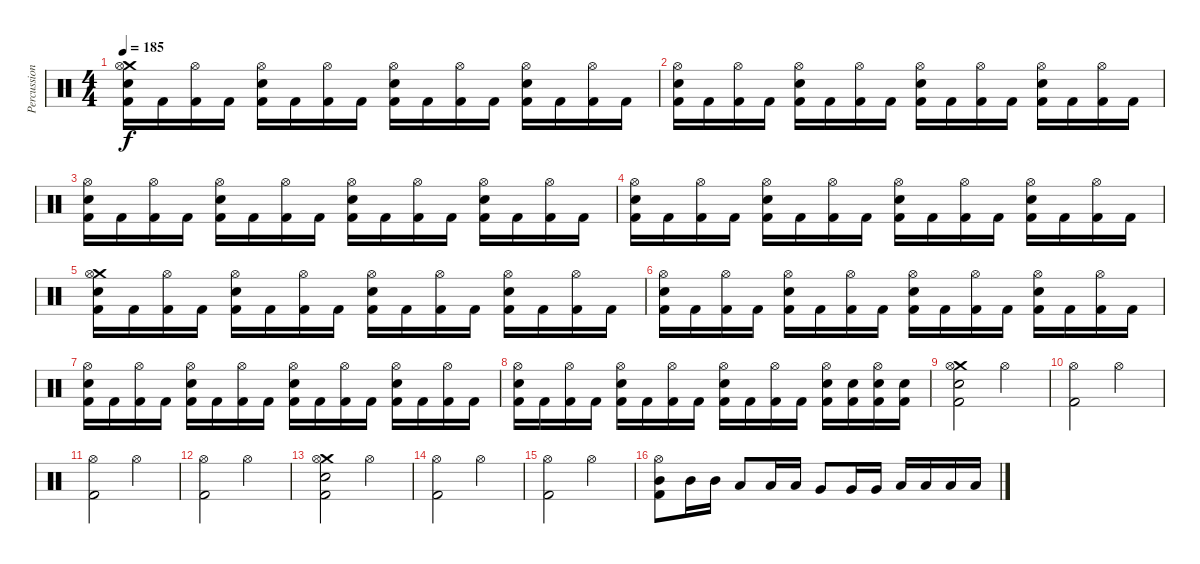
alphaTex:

\track ("Percussion" "Percussion") {instrument percussion}
\staff {score}
\articulation defaults
\ts (4 4)
\tempo 185
\clef neutral
\ks c
("Crash medium (hit)" "Hi-Hat (open)" "Electric Snare (hit)" "Kick (hit) 2").16{dy f} "Kick (hit) 2".16 ("Hi-Hat (open)" "Kick (hit) 2").16 "Kick (hit) 2".16 ("Hi-Hat (open)" "Electric Snare (hit)" "Kick (hit) 2").16 "Kick (hit) 2".16 ("Hi-Hat (open)" "Kick (hit) 2").16 "Kick (hit) 2".16 ("Hi-Hat (open)" "Electric Snare (hit)" "Kick (hit) 2").16 "Kick (hit) 2".16 ("Hi-Hat (open)" "Kick (hit) 2").16 "Kick (hit) 2".16 ("Hi-Hat (open)" "Electric Snare (hit)" "Kick (hit) 2").16 "Kick (hit) 2".16 ("Hi-Hat (open)" "Kick (hit) 2").16 "Kick (hit) 2".16 |
("Hi-Hat (open)" "Electric Snare (hit)" "Kick (hit) 2").16 "Kick (hit) 2".16 ("Hi-Hat (open)" "Kick (hit) 2").16 "Kick (hit) 2".16 ("Hi-Hat (open)" "Electric Snare (hit)" "Kick (hit) 2").16 "Kick (hit) 2".16 ("Hi-Hat (open)" "Kick (hit) 2").16 "Kick (hit) 2".16 ("Hi-Hat (open)" "Electric Snare (hit)" "Kick (hit) 2").16 "Kick (hit) 2".16 ("Hi-Hat (open)" "Kick (hit) 2").16 "Kick (hit) 2".16 ("Hi-Hat (open)" "Electric Snare (hit)" "Kick (hit) 2").16 "Kick (hit) 2".16 ("Hi-Hat (open)" "Kick (hit) 2").16 "Kick (hit) 2".16 |
("Hi-Hat (open)" "Electric Snare (hit)" "Kick (hit) 2").16 "Kick (hit) 2".16 ("Hi-Hat (open)" "Kick (hit) 2").16 "Kick (hit) 2".16 ("Hi-Hat (open)" "Electric Snare (hit)" "Kick (hit) 2").16 "Kick (hit) 2".16 ("Hi-Hat (open)" "Kick (hit) 2").16 "Kick (hit) 2".16 ("Hi-Hat (open)" "Electric Snare (hit)" "Kick (hit) 2").16 "Kick (hit) 2".16 ("Hi-Hat (open)" "Kick (hit) 2").16 "Kick (hit) 2".16 ("Hi-Hat (open)" "Electric Snare (hit)" "Kick (hit) 2").16 "Kick (hit) 2".16 ("Hi-Hat (open)" "Kick (hit) 2").16 "Kick (hit) 2".16 |
("Hi-Hat (open)" "Electric Snare (hit)" "Kick (hit) 2").16 "Kick (hit) 2".16 ("Hi-Hat (open)" "Kick (hit) 2").16 "Kick (hit) 2".16 ("Hi-Hat (open)" "Electric Snare (hit)" "Kick (hit) 2").16 "Kick (hit) 2".16 ("Hi-Hat (open)" "Kick (hit) 2").16 "Kick (hit) 2".16 ("Hi-Hat (open)" "Electric Snare (hit)" "Kick (hit) 2").16 "Kick (hit) 2".16 ("Hi-Hat (open)" "Kick (hit) 2").16 "Kick (hit) 2".16 ("Hi-Hat (open)" "Electric Snare (hit)" "Kick (hit) 2").16 "Kick (hit) 2".16 ("Hi-Hat (open)" "Kick (hit) 2").16 "Kick (hit) 2".16 |
("Crash medium (hit)" "Hi-Hat (open)" "Electric Snare (hit)" "Kick (hit) 2").16 "Kick (hit) 2".16 ("Hi-Hat (open)" "Kick (hit) 2").16 "Kick (hit) 2".16 ("Hi-Hat (open)" "Electric Snare (hit)" "Kick (hit) 2").16 "Kick (hit) 2".16 ("Hi-Hat (open)" "Kick (hit) 2").16 "Kick (hit) 2".16 ("Hi-Hat (open)" "Electric Snare (hit)" "Kick (hit) 2").16 "Kick (hit) 2".16 ("Hi-Hat (open)" "Kick (hit) 2").16 "Kick (hit) 2".16 ("Hi-Hat (open)" "Electric Snare (hit)" "Kick (hit) 2").16 "Kick (hit) 2".16 ("Hi-Hat (open)" "Kick (hit) 2").16 "Kick (hit) 2".16 |
("Hi-Hat (open)" "Electric Snare (hit)" "Kick (hit) 2").16 "Kick (hit) 2".16 ("Hi-Hat (open)" "Kick (hit) 2").16 "Kick (hit) 2".16 ("Hi-Hat (open)" "Electric Snare (hit)" "Kick (hit) 2").16 "Kick (hit) 2".16 ("Hi-Hat (open)" "Kick (hit) 2").16 "Kick (hit) 2".16 ("Hi-Hat (open)" "Electric Snare (hit)" "Kick (hit) 2").16 "Kick (hit) 2".16 ("Hi-Hat (open)" "Kick (hit) 2").16 "Kick (hit) 2".16 ("Hi-Hat (open)" "Electric Snare (hit)" "Kick (hit) 2").16 "Kick (hit) 2".16 ("Hi-Hat (open)" "Kick (hit) 2").16 "Kick (hit) 2".16 |
("Hi-Hat (open)" "Electric Snare (hit)" "Kick (hit) 2").16 "Kick (hit) 2".16 ("Hi-Hat (open)" "Kick (hit) 2").16 "Kick (hit) 2".16 ("Hi-Hat (open)" "Electric Snare (hit)" "Kick (hit) 2").16 "Kick (hit) 2".16 ("Hi-Hat (open)" "Kick (hit) 2").16 "Kick (hit) 2".16 ("Hi-Hat (open)" "Electric Snare (hit)" "Kick (hit) 2").16 "Kick (hit) 2".16 ("Hi-Hat (open)" "Kick (hit) 2").16 "Kick (hit) 2".16 ("Hi-Hat (open)" "Electric Snare (hit)" "Kick (hit) 2").16 "Kick (hit) 2".16 ("Hi-Hat (open)" "Kick (hit) 2").16 "Kick (hit) 2".16 |
("Hi-Hat (open)" "Electric Snare (hit)" "Kick (hit) 2").16 "Kick (hit) 2".16 ("Hi-Hat (open)" "Kick (hit) 2").16 "Kick (hit) 2".16 ("Hi-Hat (open)" "Electric Snare (hit)" "Kick (hit) 2").16 "Kick (hit) 2".16 ("Hi-Hat (open)" "Kick (hit) 2").16 "Kick (hit) 2".16 ("Hi-Hat (open)" "Electric Snare (hit)" "Kick (hit) 2").16 "Kick (hit) 2".16 ("Hi-Hat (open)" "Kick (hit) 2").16 "Kick (hit) 2".16 ("Hi-Hat (open)" "Electric Snare (hit)" "Kick (hit) 2").16 ("Electric Snare (hit)" "Kick (hit) 2").16 ("Hi-Hat (open)" "Electric Snare (hit)" "Kick (hit) 2").16 ("Electric Snare (hit)" "Kick (hit) 2").16 |
("Crash medium (hit)" "Hi-Hat (open)" "Electric Snare (hit)" "Kick (hit) 2").2 "Hi-Hat (open)".2 |
("Hi-Hat (open)" "Kick (hit) 2").2 "Hi-Hat (open)".2 |
("Hi-Hat (open)" "Kick (hit) 2").2 "Hi-Hat (open)".2 |
("Hi-Hat (open)" "Kick (hit) 2").2 "Hi-Hat (open)".2 |
("Crash medium (hit)" "Hi-Hat (open)" "Electric Snare (hit)" "Kick (hit) 2").2 "Hi-Hat (open)".2 |
("Hi-Hat (open)" "Kick (hit) 2").2 "Hi-Hat (open)".2 |
("Hi-Hat (open)" "Kick (hit) 2").2 "Hi-Hat (open)".2 |
("Hi-Hat (open)" "Mid Tom (hit)" "Kick (hit) 2").8 "Mid Tom (hit)".16 "Mid Tom (hit)".16 "Low Tom (hit)".8 "Low Tom (hit)".16 "Low Tom (hit)".16 "Very Low Tom (hit)".8 "Very Low Tom (hit)".16 "Very Low Tom (hit)".16 "Low Floor Tom (hit)".16 "Low Floor Tom (hit)".16 "Low Floor Tom (hit)".16 "Low Floor Tom (hit)".16
